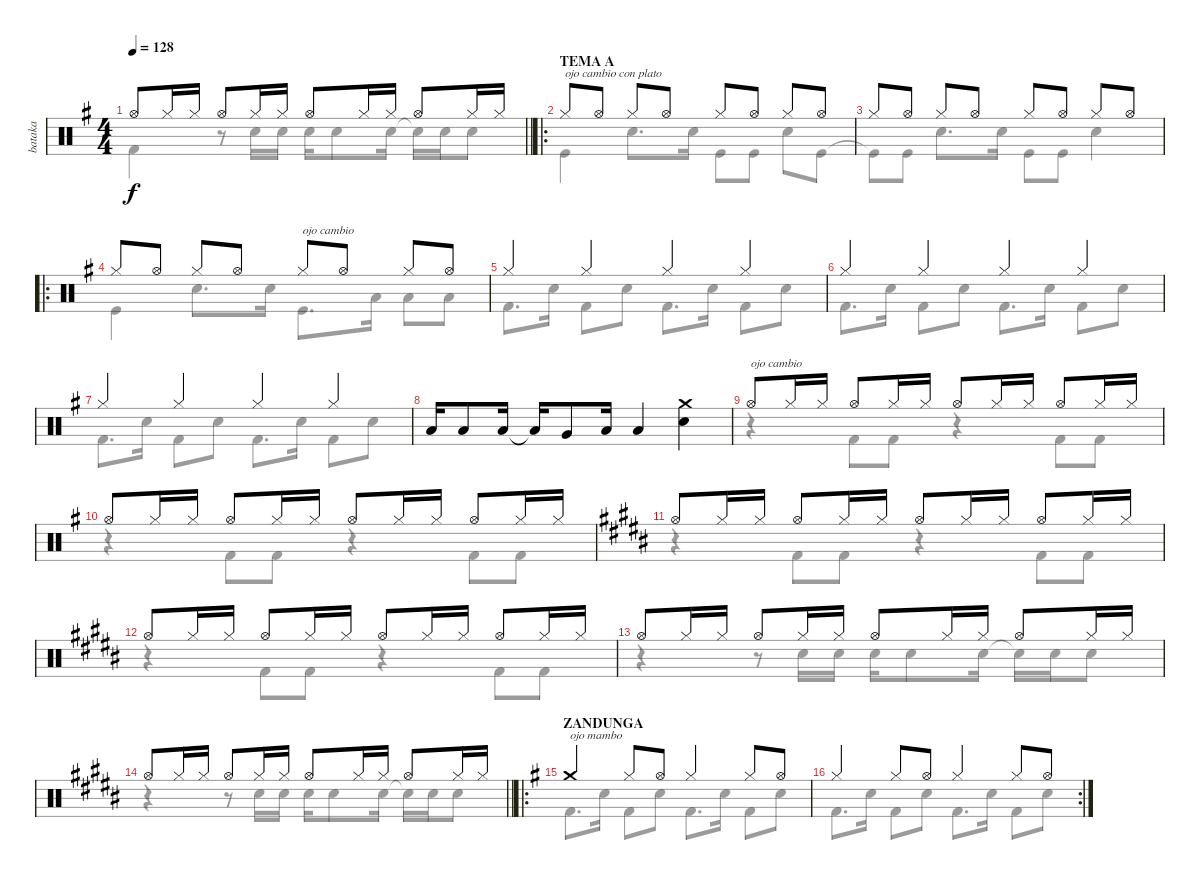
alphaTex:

\track ("bataka" "bataka") {mute instrument percussion}
\staff {score}
\articulation defaults
\voice
\ts (4 4)
\tempo 128
\clef neutral
\barLineRight lightlight
\ks eminor "Hi-Hat (open)".8{dy f} "Hi-Hat (closed)".16 "Hi-Hat (closed)".16 "Hi-Hat (open)".8 "Hi-Hat (closed)".16 "Hi-Hat (closed)".16 "Hi-Hat (open)".8 "Hi-Hat (closed)".16 "Hi-Hat (closed)".16 "Hi-Hat (open)".8 "Hi-Hat (closed)".16 "Hi-Hat (closed)".16
|
\ro
\section ("" "TEMA A")
"Hi-Hat (closed)".8{txt "ojo cambio con plato"} "Hi-Hat (open)".8 "Hi-Hat (closed)".8 "Hi-Hat (open)".8 "Hi-Hat (closed)".8 "Hi-Hat (open)".8 "Hi-Hat (closed)".8 "Hi-Hat (open)".8 |
"Hi-Hat (closed)".8 "Hi-Hat (open)".8 "Hi-Hat (closed)".8 "Hi-Hat (open)".8 "Hi-Hat (closed)".8 "Hi-Hat (open)".8 "Hi-Hat (closed)".8 "Hi-Hat (open)".8 |
\ro "Hi-Hat (closed)".8 "Hi-Hat (open)".8 "Hi-Hat (closed)".8 "Hi-Hat (open)".8 "Hi-Hat (closed)".8{txt "ojo cambio"} "Hi-Hat (open)".8 "Hi-Hat (closed)".8 "Hi-Hat (open)".8
|
"Hi-Hat (closed)".4 "Hi-Hat (closed)".4 "Hi-Hat (closed)".4 "Hi-Hat (closed)".4 |
"Hi-Hat (closed)".4 "Hi-Hat (closed)".4 "Hi-Hat (closed)".4 "Hi-Hat (closed)".4 |
"Hi-Hat (closed)".4 "Hi-Hat (closed)".4 "Hi-Hat (closed)".4 "Hi-Hat (closed)".4 |
"Low Tom (hit)".16 "Low Tom (hit)".8 "Low Tom (hit)".16 "Low Tom (hit)"{t}.16 "Very Low Tom (hit)".8 "Low Floor Tom (hit)".16 "Low Floor Tom (hit)".4 ("Snare (hit) 2" "Crash medium (hit)").4 |
"Hi-Hat (open)".8{txt "ojo cambio"} "Hi-Hat (closed)".16 "Hi-Hat (closed)".16 "Hi-Hat (open)".8 "Hi-Hat (closed)".16 "Hi-Hat (closed)".16 "Hi-Hat (open)".8 "Hi-Hat (closed)".16 "Hi-Hat (closed)".16 "Hi-Hat (open)".8 "Hi-Hat (closed)".16 "Hi-Hat (closed)".16 |
"Hi-Hat (open)".8 "Hi-Hat (closed)".16 "Hi-Hat (closed)".16 "Hi-Hat (open)".8 "Hi-Hat (closed)".16 "Hi-Hat (closed)".16 "Hi-Hat (open)".8 "Hi-Hat (closed)".16 "Hi-Hat (closed)".16 "Hi-Hat (open)".8 "Hi-Hat (closed)".16 "Hi-Hat (closed)".16 |
\ks b "Hi-Hat (open)".8 "Hi-Hat (closed)".16 "Hi-Hat (closed)".16 "Hi-Hat (open)".8 "Hi-Hat (closed)".16 "Hi-Hat (closed)".16 "Hi-Hat (open)".8 "Hi-Hat (closed)".16 "Hi-Hat (closed)".16 "Hi-Hat (open)".8 "Hi-Hat (closed)".16 "Hi-Hat (closed)".16
|
"Hi-Hat (open)".8 "Hi-Hat (closed)".16 "Hi-Hat (closed)".16 "Hi-Hat (open)".8 "Hi-Hat (closed)".16 "Hi-Hat (closed)".16 "Hi-Hat (open)".8 "Hi-Hat (closed)".16 "Hi-Hat (closed)".16 "Hi-Hat (open)".8 "Hi-Hat (closed)".16 "Hi-Hat (closed)".16 |
"Hi-Hat (open)".8 "Hi-Hat (closed)".16 "Hi-Hat (closed)".16 "Hi-Hat (open)".8 "Hi-Hat (closed)".16 "Hi-Hat (closed)".16 "Hi-Hat (open)".8 "Hi-Hat (closed)".16 "Hi-Hat (closed)".16 "Hi-Hat (open)".8 "Hi-Hat (closed)".16 "Hi-Hat (closed)".16 |
\barLineRight lightlight "Hi-Hat (open)".8 "Hi-Hat (closed)".16 "Hi-Hat (closed)".16 "Hi-Hat (open)".8 "Hi-Hat (closed)".16 "Hi-Hat (closed)".16 "Hi-Hat (open)".8 "Hi-Hat (closed)".16 "Hi-Hat (closed)".16 "Hi-Hat (open)".8 "Hi-Hat (closed)".16 "Hi-Hat (closed)".16
|
\ro
\section ("" "ZANDUNGA")
\ks eminor "Crash medium (hit)".4{txt "ojo mambo"} "Hi-Hat (closed)".8 "Hi-Hat (open)".8 "Hi-Hat (closed)".4 "Hi-Hat (closed)".8 "Hi-Hat (open)".8
|
\rc 2 "Hi-Hat (closed)".4 "Hi-Hat (closed)".8 "Hi-Hat (open)".8 "Hi-Hat (closed)".4 "Hi-Hat (closed)".8 "Hi-Hat (open)".8
\voice
\clef neutral
\ottava regular
\simile none
\barLineRight lightlight
\ks eminor "Kick (hit) 2".4{dy f}
r.8 "Snare (hit) 2".16 "Snare (hit) 2".16 "Snare (hit) 2".16 "Snare (hit) 2".8 "Snare (hit) 2".16 "Snare (hit) 2"{t}.16 "Snare (hit) 2".16 "Snare (hit) 2".8 |
"Kick (hit)".4 "Snare (hit) 2".8{d} "Snare (hit) 2".16 "Kick (hit)".8 "Kick (hit)".8 "Snare (hit) 2".8 "Kick (hit)".8 |
"Kick (hit)"{t}.8 "Kick (hit)".8 "Snare (hit) 2".8{d} "Snare (hit) 2".16 "Kick (hit)".8 "Kick (hit)".8 "Snare (hit) 2".4 |
"Kick (hit)".4 "Snare (hit) 2".8{d} "Snare (hit) 2".16 "Kick (hit)".8{d} "Low Tom (hit)".16 "Low Floor Tom (hit)".8 "Low Floor Tom (hit)".8 |
"Kick (hit) 2".8{d} "Snare (hit) 2".16 "Kick (hit) 2".8 "Snare (hit) 2".8 "Kick (hit) 2".8{d} "Snare (hit) 2".16 "Kick (hit) 2".8 "Snare (hit) 2".8 |
"Kick (hit) 2".8{d} "Snare (hit) 2".16 "Kick (hit) 2".8 "Snare (hit) 2".8 "Kick (hit) 2".8{d} "Snare (hit) 2".16 "Kick (hit) 2".8 "Snare (hit) 2".8 |
"Kick (hit) 2".8{d} "Snare (hit) 2".16 "Kick (hit) 2".8 "Snare (hit) 2".8 "Kick (hit) 2".8{d} "Snare (hit) 2".16 "Kick (hit) 2".8 "Snare (hit) 2".8 |
|
r.4 "Kick (hit) 2".8 "Kick (hit) 2".8 r.4 "Kick (hit) 2".8 "Kick (hit) 2".8 |
r.4 "Kick (hit) 2".8 "Kick (hit) 2".8 r.4 "Kick (hit) 2".8 "Kick (hit) 2".8 |
\ks b
r.4 "Kick (hit) 2".8 "Kick (hit) 2".8 r.4 "Kick (hit) 2".8 "Kick (hit) 2".8 |
r.4 "Kick (hit) 2".8 "Kick (hit) 2".8 r.4 "Kick (hit) 2".8 "Kick (hit) 2".8 |
r.4 r.8 "Snare (hit) 2".16 "Snare (hit) 2".16 "Snare (hit) 2".16 "Snare (hit) 2".8 "Snare (hit) 2".16 "Snare (hit) 2"{t}.16 "Snare (hit) 2".16 "Snare (hit) 2".8 |
\barLineRight lightlight
r.4 r.8 "Snare (hit) 2".16 "Snare (hit) 2".16 "Snare (hit) 2".16 "Snare (hit) 2".8 "Snare (hit) 2".16 "Snare (hit) 2"{t}.16 "Snare (hit) 2".16 "Snare (hit) 2".8 |
\ks eminor "Kick (hit) 2".8{d} "Snare (hit) 2".16 "Kick (hit) 2".8 "Snare (hit) 2".8 "Kick (hit) 2".8{d} "Snare (hit) 2".16 "Kick (hit) 2".8 "Snare (hit) 2".8
|
"Kick (hit) 2".8{d} "Snare (hit) 2".16 "Kick (hit) 2".8 "Snare (hit) 2".8 "Kick (hit) 2".8{d} "Snare (hit) 2".16 "Kick (hit) 2".8 "Snare (hit) 2".8
